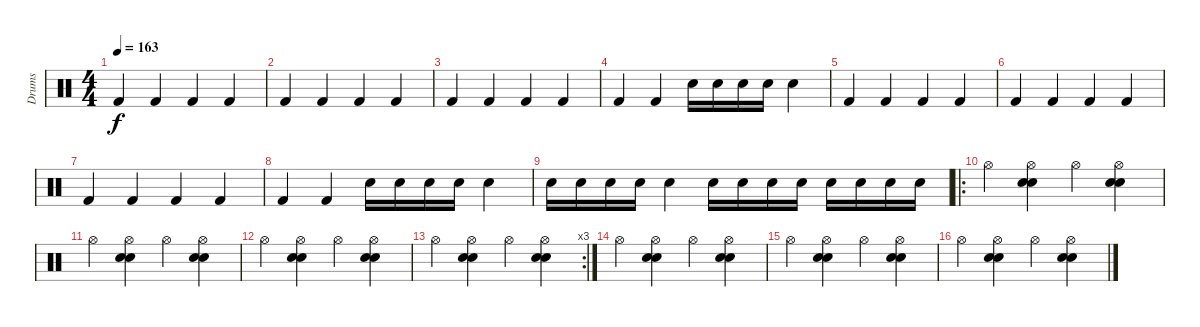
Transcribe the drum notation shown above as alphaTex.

\track ("Drums" "Drums") {instrument percussion}
\staff {score}
\articulation defaults
\ts (4 4)
\tempo 163
\clef neutral
\ks c "Kick (hit) 2".4{dy f} "Kick (hit) 2".4 "Kick (hit) 2".4 "Kick (hit) 2".4
|
"Kick (hit) 2".4 "Kick (hit) 2".4 "Kick (hit) 2".4 "Kick (hit) 2".4 |
"Kick (hit) 2".4 "Kick (hit) 2".4 "Kick (hit) 2".4 "Kick (hit) 2".4 |
"Kick (hit) 2".4 "Kick (hit) 2".4 "Electric Snare (hit)".16 "Electric Snare (hit)".16 "Electric Snare (hit)".16 "Electric Snare (hit)".16 "Electric Snare (hit)".4 |
"Kick (hit) 2".4 "Kick (hit) 2".4 "Kick (hit) 2".4 "Kick (hit) 2".4 |
"Kick (hit) 2".4 "Kick (hit) 2".4 "Kick (hit) 2".4 "Kick (hit) 2".4 |
"Kick (hit) 2".4 "Kick (hit) 2".4 "Kick (hit) 2".4 "Kick (hit) 2".4 |
"Kick (hit) 2".4 "Kick (hit) 2".4 "Electric Snare (hit)".16 "Electric Snare (hit)".16 "Electric Snare (hit)".16 "Electric Snare (hit)".16 "Electric Snare (hit)".4 |
"Electric Snare (hit)".16 "Electric Snare (hit)".16 "Electric Snare (hit)".16 "Electric Snare (hit)".16 "Electric Snare (hit)".4 "Electric Snare (hit)".16 "Electric Snare (hit)".16 "Electric Snare (hit)".16 "Electric Snare (hit)".16 "Electric Snare (hit)".16 "Electric Snare (hit)".16 "Electric Snare (hit)".16 "Electric Snare (hit)".16 |
\ro "Hi-Hat (open)".4
("Hi-Hat (open)" "Electric Snare (hit)" "Electric Snare (hit)").4 "Hi-Hat (open)".4 ("Hi-Hat (open)" "Electric Snare (hit)" "Electric Snare (hit)").4 |
"Hi-Hat (open)".4 ("Hi-Hat (open)" "Electric Snare (hit)" "Electric Snare (hit)").4 "Hi-Hat (open)".4 ("Hi-Hat (open)" "Electric Snare (hit)" "Electric Snare (hit)").4 |
"Hi-Hat (open)".4 ("Hi-Hat (open)" "Electric Snare (hit)" "Electric Snare (hit)").4 "Hi-Hat (open)".4 ("Hi-Hat (open)" "Electric Snare (hit)" "Electric Snare (hit)").4 |
\rc 3 "Hi-Hat (open)".4
("Hi-Hat (open)" "Electric Snare (hit)" "Electric Snare (hit)").4 "Hi-Hat (open)".4 ("Hi-Hat (open)" "Electric Snare (hit)" "Electric Snare (hit)").4 |
"Hi-Hat (open)".4 ("Hi-Hat (open)" "Electric Snare (hit)" "Electric Snare (hit)").4 "Hi-Hat (open)".4 ("Hi-Hat (open)" "Electric Snare (hit)" "Electric Snare (hit)").4 |
"Hi-Hat (open)".4 ("Hi-Hat (open)" "Electric Snare (hit)" "Electric Snare (hit)").4 "Hi-Hat (open)".4 ("Hi-Hat (open)" "Electric Snare (hit)" "Electric Snare (hit)").4 |
"Hi-Hat (open)".4 ("Hi-Hat (open)" "Electric Snare (hit)" "Electric Snare (hit)").4 "Hi-Hat (open)".4 ("Hi-Hat (open)" "Electric Snare (hit)" "Electric Snare (hit)").4
